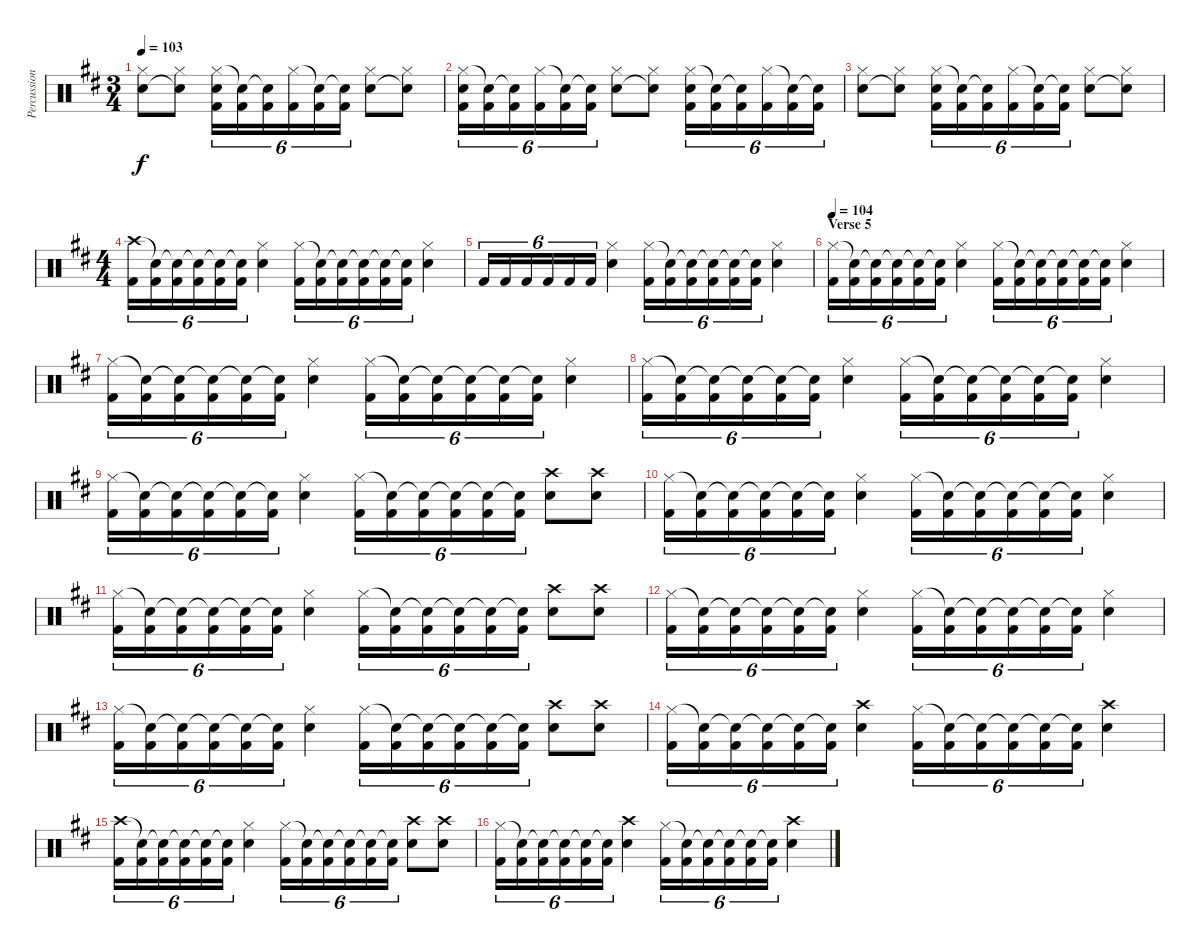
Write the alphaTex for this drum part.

\track ("Percussions" "Percussion") {instrument percussion}
\staff {score}
\articulation defaults
\ts (3 4)
\tempo 103
\clef neutral
\ks bminor
("Hi-Hat (closed)" "Snare (hit) 2").8{dy f} ("Hi-Hat (closed)" "Snare (hit)"{t}).8 ("Hi-Hat (closed)" "Snare (hit) 2" "Kick (hit) 2").16{tu (6 4)} ("Snare (hit)"{t} "Kick (hit) 2").16{tu (6 4)} ("Snare (hit)"{t} "Kick (hit) 2").16{tu (6 4)} ("Hi-Hat (closed)" "Kick (hit) 2").16{tu (6 4)} ("Snare (hit)"{t} "Kick (hit) 2").16{tu (6 4)} ("Snare (hit)"{t} "Kick (hit) 2").16{tu (6 4)} ("Hi-Hat (closed)" "Snare (hit) 2").8 ("Hi-Hat (closed)" "Snare (hit)"{t}).8 |
("Hi-Hat (closed)" "Snare (hit) 2" "Kick (hit) 2").16{tu (6 4)} ("Snare (hit)"{t} "Kick (hit) 2").16{tu (6 4)} ("Snare (hit)"{t} "Kick (hit) 2").16{tu (6 4)} ("Hi-Hat (closed)" "Kick (hit) 2").16{tu (6 4)} ("Snare (hit)"{t} "Kick (hit) 2").16{tu (6 4)} ("Snare (hit)"{t} "Kick (hit) 2").16{tu (6 4)} ("Hi-Hat (closed)" "Snare (hit) 2").8 ("Hi-Hat (closed)" "Snare (hit)"{t}).8 ("Hi-Hat (closed)" "Snare (hit) 2" "Kick (hit) 2").16{tu (6 4)} ("Snare (hit)"{t} "Kick (hit) 2").16{tu (6 4)} ("Snare (hit)"{t} "Kick (hit) 2").16{tu (6 4)} ("Hi-Hat (closed)" "Kick (hit) 2").16{tu (6 4)} ("Snare (hit)"{t} "Kick (hit) 2").16{tu (6 4)} ("Snare (hit)"{t} "Kick (hit) 2").16{tu (6 4)} |
("Hi-Hat (closed)" "Snare (hit) 2").8 ("Hi-Hat (closed)" "Snare (hit)"{t}).8 ("Hi-Hat (closed)" "Snare (hit) 2" "Kick (hit) 2").16{tu (6 4)} ("Snare (hit)"{t} "Kick (hit) 2").16{tu (6 4)} ("Snare (hit)"{t} "Kick (hit) 2").16{tu (6 4)} ("Hi-Hat (closed)" "Kick (hit) 2").16{tu (6 4)} ("Snare (hit)"{t} "Kick (hit) 2").16{tu (6 4)} ("Snare (hit)"{t} "Kick (hit) 2").16{tu (6 4)} ("Hi-Hat (closed)" "Snare (hit) 2").8 ("Hi-Hat (closed)" "Snare (hit)"{t}).8 |
\ts (4 4)
("Crash high (hit)" "Kick (hit) 2").16{tu (6 4)} ("Snare (hit)"{t} "Kick (hit) 2").16{tu (6 4)} ("Snare (hit)"{t} "Kick (hit) 2").16{tu (6 4)} ("Snare (hit)"{t} "Kick (hit) 2").16{tu (6 4)} ("Snare (hit)"{t} "Kick (hit) 2").16{tu (6 4)} ("Snare (hit)"{t} "Kick (hit) 2").16{tu (6 4)} ("Hi-Hat (closed)" "Snare (hit) 2").4 ("Hi-Hat (closed)" "Kick (hit) 2").16{tu (6 4)} ("Snare (hit)"{t} "Kick (hit) 2").16{tu (6 4)} ("Snare (hit)"{t} "Kick (hit) 2").16{tu (6 4)} ("Snare (hit)"{t} "Kick (hit) 2").16{tu (6 4)} ("Snare (hit)"{t} "Kick (hit) 2").16{tu (6 4)} ("Snare (hit)"{t} "Kick (hit) 2").16{tu (6 4)} ("Hi-Hat (closed)" "Snare (hit) 2").4 |
"Kick (hit) 2".16{tu (6 4)} "Kick (hit) 2".16{tu (6 4)} "Kick (hit) 2".16{tu (6 4)} "Kick (hit) 2".16{tu (6 4)} "Kick (hit) 2".16{tu (6 4)} "Kick (hit) 2".16{tu (6 4)} ("Hi-Hat (closed)" "Snare (hit) 2").4 ("Hi-Hat (closed)" "Kick (hit) 2").16{tu (6 4)} ("Snare (hit)"{t} "Kick (hit) 2").16{tu (6 4)} ("Snare (hit)"{t} "Kick (hit) 2").16{tu (6 4)} ("Snare (hit)"{t} "Kick (hit) 2").16{tu (6 4)} ("Snare (hit)"{t} "Kick (hit) 2").16{tu (6 4)} ("Snare (hit)"{t} "Kick (hit) 2").16{tu (6 4)} ("Hi-Hat (closed)" "Snare (hit) 2").4 |
\section ("" "Verse 5")
\tempo 104
("Hi-Hat (closed)" "Kick (hit) 2").16{tu (6 4)} ("Snare (hit)"{t} "Kick (hit) 2").16{tu (6 4)} ("Snare (hit)"{t} "Kick (hit) 2").16{tu (6 4)} ("Snare (hit)"{t} "Kick (hit) 2").16{tu (6 4)} ("Snare (hit)"{t} "Kick (hit) 2").16{tu (6 4)} ("Snare (hit)"{t} "Kick (hit) 2").16{tu (6 4)} ("Hi-Hat (closed)" "Snare (hit) 2").4 ("Hi-Hat (closed)" "Kick (hit) 2").16{tu (6 4)} ("Snare (hit)"{t} "Kick (hit) 2").16{tu (6 4)} ("Snare (hit)"{t} "Kick (hit) 2").16{tu (6 4)} ("Snare (hit)"{t} "Kick (hit) 2").16{tu (6 4)} ("Snare (hit)"{t} "Kick (hit) 2").16{tu (6 4)} ("Snare (hit)"{t} "Kick (hit) 2").16{tu (6 4)} ("Hi-Hat (closed)" "Snare (hit) 2").4 |
("Hi-Hat (closed)" "Kick (hit) 2").16{tu (6 4)} ("Snare (hit)"{t} "Kick (hit) 2").16{tu (6 4)} ("Snare (hit)"{t} "Kick (hit) 2").16{tu (6 4)} ("Snare (hit)"{t} "Kick (hit) 2").16{tu (6 4)} ("Snare (hit)"{t} "Kick (hit) 2").16{tu (6 4)} ("Snare (hit)"{t} "Kick (hit) 2").16{tu (6 4)} ("Hi-Hat (closed)" "Snare (hit) 2").4 ("Hi-Hat (closed)" "Kick (hit) 2").16{tu (6 4)} ("Snare (hit)"{t} "Kick (hit) 2").16{tu (6 4)} ("Snare (hit)"{t} "Kick (hit) 2").16{tu (6 4)} ("Snare (hit)"{t} "Kick (hit) 2").16{tu (6 4)} ("Snare (hit)"{t} "Kick (hit) 2").16{tu (6 4)} ("Snare (hit)"{t} "Kick (hit) 2").16{tu (6 4)} ("Hi-Hat (closed)" "Snare (hit) 2").4 |
("Hi-Hat (closed)" "Kick (hit) 2").16{tu (6 4)} ("Snare (hit)"{t} "Kick (hit) 2").16{tu (6 4)} ("Snare (hit)"{t} "Kick (hit) 2").16{tu (6 4)} ("Snare (hit)"{t} "Kick (hit) 2").16{tu (6 4)} ("Snare (hit)"{t} "Kick (hit) 2").16{tu (6 4)} ("Snare (hit)"{t} "Kick (hit) 2").16{tu (6 4)} ("Hi-Hat (closed)" "Snare (hit) 2").4 ("Hi-Hat (closed)" "Kick (hit) 2").16{tu (6 4)} ("Snare (hit)"{t} "Kick (hit) 2").16{tu (6 4)} ("Snare (hit)"{t} "Kick (hit) 2").16{tu (6 4)} ("Snare (hit)"{t} "Kick (hit) 2").16{tu (6 4)} ("Snare (hit)"{t} "Kick (hit) 2").16{tu (6 4)} ("Snare (hit)"{t} "Kick (hit) 2").16{tu (6 4)} ("Hi-Hat (closed)" "Snare (hit) 2").4 |
("Hi-Hat (closed)" "Kick (hit) 2").16{tu (6 4)} ("Snare (hit)"{t} "Kick (hit) 2").16{tu (6 4)} ("Snare (hit)"{t} "Kick (hit) 2").16{tu (6 4)} ("Snare (hit)"{t} "Kick (hit) 2").16{tu (6 4)} ("Snare (hit)"{t} "Kick (hit) 2").16{tu (6 4)} ("Snare (hit)"{t} "Kick (hit) 2").16{tu (6 4)} ("Hi-Hat (closed)" "Snare (hit) 2").4 ("Hi-Hat (closed)" "Kick (hit) 2").16{tu (6 4)} ("Snare (hit)"{t} "Kick (hit) 2").16{tu (6 4)} ("Snare (hit)"{t} "Kick (hit) 2").16{tu (6 4)} ("Snare (hit)"{t} "Kick (hit) 2").16{tu (6 4)} ("Snare (hit)"{t} "Kick (hit) 2").16{tu (6 4)} ("Snare (hit)"{t} "Kick (hit) 2").16{tu (6 4)} ("Crash high (hit)" "Snare (hit) 2").8 ("Crash high (hit)" "Snare (hit) 2").8 |
("Hi-Hat (closed)" "Kick (hit) 2").16{tu (6 4)} ("Snare (hit)"{t} "Kick (hit) 2").16{tu (6 4)} ("Snare (hit)"{t} "Kick (hit) 2").16{tu (6 4)} ("Snare (hit)"{t} "Kick (hit) 2").16{tu (6 4)} ("Snare (hit)"{t} "Kick (hit) 2").16{tu (6 4)} ("Snare (hit)"{t} "Kick (hit) 2").16{tu (6 4)} ("Hi-Hat (closed)" "Snare (hit) 2").4 ("Hi-Hat (closed)" "Kick (hit) 2").16{tu (6 4)} ("Snare (hit)"{t} "Kick (hit) 2").16{tu (6 4)} ("Snare (hit)"{t} "Kick (hit) 2").16{tu (6 4)} ("Snare (hit)"{t} "Kick (hit) 2").16{tu (6 4)} ("Snare (hit)"{t} "Kick (hit) 2").16{tu (6 4)} ("Snare (hit)"{t} "Kick (hit) 2").16{tu (6 4)} ("Hi-Hat (closed)" "Snare (hit) 2").4 |
("Hi-Hat (closed)" "Kick (hit) 2").16{tu (6 4)} ("Snare (hit)"{t} "Kick (hit) 2").16{tu (6 4)} ("Snare (hit)"{t} "Kick (hit) 2").16{tu (6 4)} ("Snare (hit)"{t} "Kick (hit) 2").16{tu (6 4)} ("Snare (hit)"{t} "Kick (hit) 2").16{tu (6 4)} ("Snare (hit)"{t} "Kick (hit) 2").16{tu (6 4)} ("Hi-Hat (closed)" "Snare (hit) 2").4 ("Hi-Hat (closed)" "Kick (hit) 2").16{tu (6 4)} ("Snare (hit)"{t} "Kick (hit) 2").16{tu (6 4)} ("Snare (hit)"{t} "Kick (hit) 2").16{tu (6 4)} ("Snare (hit)"{t} "Kick (hit) 2").16{tu (6 4)} ("Snare (hit)"{t} "Kick (hit) 2").16{tu (6 4)} ("Snare (hit)"{t} "Kick (hit) 2").16{tu (6 4)} ("Crash high (hit)" "Snare (hit) 2").8 ("Crash high (hit)" "Snare (hit) 2").8 |
("Hi-Hat (closed)" "Kick (hit) 2").16{tu (6 4)} ("Snare (hit)"{t} "Kick (hit) 2").16{tu (6 4)} ("Snare (hit)"{t} "Kick (hit) 2").16{tu (6 4)} ("Snare (hit)"{t} "Kick (hit) 2").16{tu (6 4)} ("Snare (hit)"{t} "Kick (hit) 2").16{tu (6 4)} ("Snare (hit)"{t} "Kick (hit) 2").16{tu (6 4)} ("Hi-Hat (closed)" "Snare (hit) 2").4 ("Hi-Hat (closed)" "Kick (hit) 2").16{tu (6 4)} ("Snare (hit)"{t} "Kick (hit) 2").16{tu (6 4)} ("Snare (hit)"{t} "Kick (hit) 2").16{tu (6 4)} ("Snare (hit)"{t} "Kick (hit) 2").16{tu (6 4)} ("Snare (hit)"{t} "Kick (hit) 2").16{tu (6 4)} ("Snare (hit)"{t} "Kick (hit) 2").16{tu (6 4)} ("Hi-Hat (closed)" "Snare (hit) 2").4 |
("Hi-Hat (closed)" "Kick (hit) 2").16{tu (6 4)} ("Snare (hit)"{t} "Kick (hit) 2").16{tu (6 4)} ("Snare (hit)"{t} "Kick (hit) 2").16{tu (6 4)} ("Snare (hit)"{t} "Kick (hit) 2").16{tu (6 4)} ("Snare (hit)"{t} "Kick (hit) 2").16{tu (6 4)} ("Snare (hit)"{t} "Kick (hit) 2").16{tu (6 4)} ("Hi-Hat (closed)" "Snare (hit) 2").4 ("Hi-Hat (closed)" "Kick (hit) 2").16{tu (6 4)} ("Snare (hit)"{t} "Kick (hit) 2").16{tu (6 4)} ("Snare (hit)"{t} "Kick (hit) 2").16{tu (6 4)} ("Snare (hit)"{t} "Kick (hit) 2").16{tu (6 4)} ("Snare (hit)"{t} "Kick (hit) 2").16{tu (6 4)} ("Snare (hit)"{t} "Kick (hit) 2").16{tu (6 4)} ("Crash high (hit)" "Snare (hit) 2").8 ("Crash high (hit)" "Snare (hit) 2").8 |
("Hi-Hat (closed)" "Kick (hit) 2").16{tu (6 4)} ("Snare (hit)"{t} "Kick (hit) 2").16{tu (6 4)} ("Snare (hit)"{t} "Kick (hit) 2").16{tu (6 4)} ("Snare (hit)"{t} "Kick (hit) 2").16{tu (6 4)} ("Snare (hit)"{t} "Kick (hit) 2").16{tu (6 4)} ("Snare (hit)"{t} "Kick (hit) 2").16{tu (6 4)} ("Crash high (hit)" "Snare (hit) 2").4 ("Hi-Hat (closed)" "Kick (hit) 2").16{tu (6 4)} ("Snare (hit)"{t} "Kick (hit) 2").16{tu (6 4)} ("Snare (hit)"{t} "Kick (hit) 2").16{tu (6 4)} ("Snare (hit)"{t} "Kick (hit) 2").16{tu (6 4)} ("Snare (hit)"{t} "Kick (hit) 2").16{tu (6 4)} ("Snare (hit)"{t} "Kick (hit) 2").16{tu (6 4)} ("Crash high (hit)" "Snare (hit) 2").4 |
("Crash high (hit)" "Kick (hit) 2").16{tu (6 4)} ("Snare (hit)"{t} "Kick (hit) 2").16{tu (6 4)} ("Snare (hit)"{t} "Kick (hit) 2").16{tu (6 4)} ("Snare (hit)"{t} "Kick (hit) 2").16{tu (6 4)} ("Snare (hit)"{t} "Kick (hit) 2").16{tu (6 4)} ("Snare (hit)"{t} "Kick (hit) 2").16{tu (6 4)} ("Hi-Hat (closed)" "Snare (hit) 2").4 ("Hi-Hat (closed)" "Kick (hit) 2").16{tu (6 4)} ("Snare (hit)"{t} "Kick (hit) 2").16{tu (6 4)} ("Snare (hit)"{t} "Kick (hit) 2").16{tu (6 4)} ("Snare (hit)"{t} "Kick (hit) 2").16{tu (6 4)} ("Snare (hit)"{t} "Kick (hit) 2").16{tu (6 4)} ("Snare (hit)"{t} "Kick (hit) 2").16{tu (6 4)} ("Crash high (hit)" "Snare (hit) 2").8 ("Crash high (hit)" "Snare (hit) 2").8 |
("Hi-Hat (closed)" "Kick (hit) 2").16{tu (6 4)} ("Snare (hit)"{t} "Kick (hit) 2").16{tu (6 4)} ("Snare (hit)"{t} "Kick (hit) 2").16{tu (6 4)} ("Snare (hit)"{t} "Kick (hit) 2").16{tu (6 4)} ("Snare (hit)"{t} "Kick (hit) 2").16{tu (6 4)} ("Snare (hit)"{t} "Kick (hit) 2").16{tu (6 4)} ("Crash high (hit)" "Snare (hit) 2").4 ("Hi-Hat (closed)" "Kick (hit) 2").16{tu (6 4)} ("Snare (hit)"{t} "Kick (hit) 2").16{tu (6 4)} ("Snare (hit)"{t} "Kick (hit) 2").16{tu (6 4)} ("Snare (hit)"{t} "Kick (hit) 2").16{tu (6 4)} ("Snare (hit)"{t} "Kick (hit) 2").16{tu (6 4)} ("Snare (hit)"{t} "Kick (hit) 2").16{tu (6 4)} ("Crash high (hit)" "Snare (hit) 2").4
